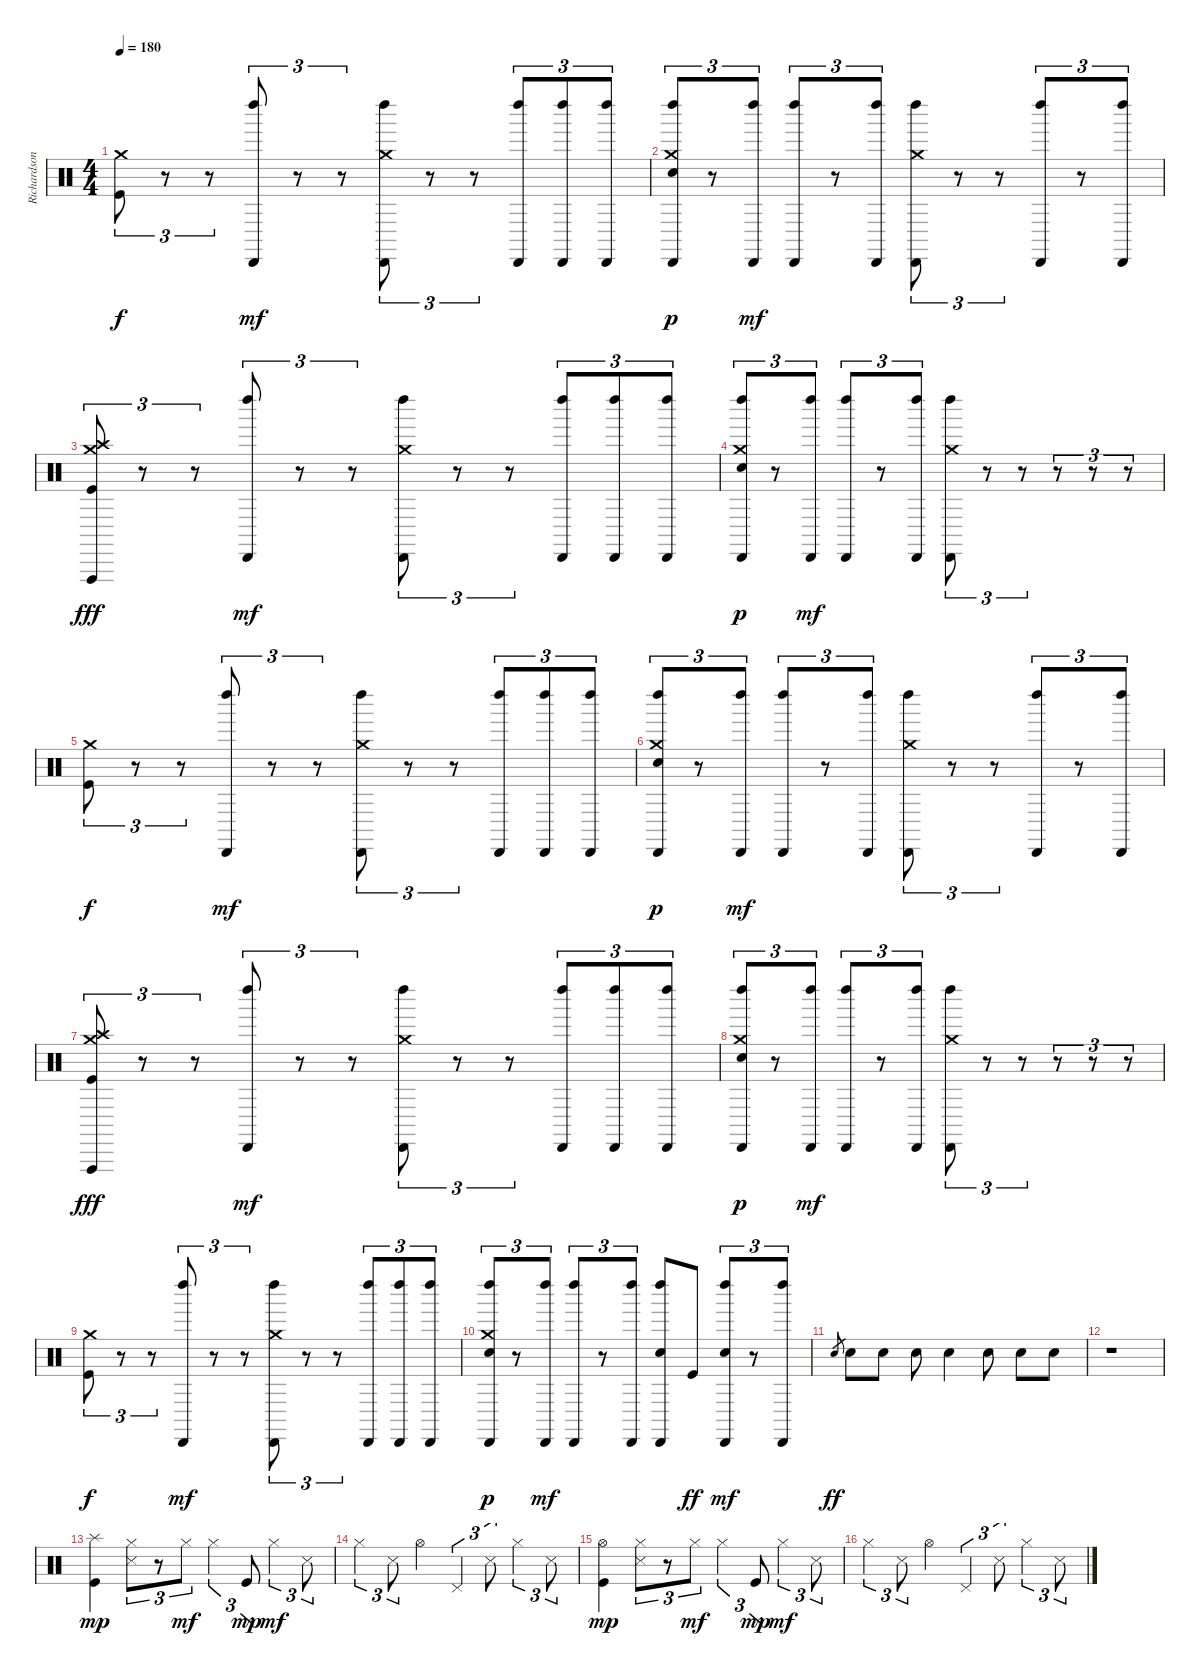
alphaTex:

\track ("Richardson" "Richardson") {instrument percussion}
\staff {score}
\articulation defaults
\ts (4 4)
\tempo 180
\clef neutral
\ks c
("Crash medium (hit)" "Kick (hit)").8{tu (3 2) dy f} r.8{tu (3 2)} r.8{tu (3 2)} ("Cabasa (hit)" "Left Maraca (hit)").8{tu (3 2) dy mf} r.8{tu (3 2)} r.8{tu (3 2)} ("Crash medium (hit)" "Cabasa (hit)" "Left Maraca (hit)").8{tu (3 2)} r.8{tu (3 2)} r.8{tu (3 2)} ("Cabasa (hit)" "Left Maraca (hit)").8{tu (3 2)} ("Cabasa (hit)" "Left Maraca (hit)").8{tu (3 2)} ("Cabasa (hit)" "Left Maraca (hit)").8{tu (3 2)} |
("Crash medium (hit)" "Left Maraca (hit)" "Electric Snare (hit)" "Cabasa (hit)").8{tu (3 2) dy p} r.8{tu (3 2)} ("Cabasa (hit)" "Left Maraca (hit)").8{tu (3 2) dy mf} ("Cabasa (hit)" "Left Maraca (hit)").8{tu (3 2)} r.8{tu (3 2)} ("Cabasa (hit)" "Left Maraca (hit)").8{tu (3 2)} ("Crash medium (hit)" "Cabasa (hit)" "Left Maraca (hit)").8{tu (3 2)} r.8{tu (3 2)} r.8{tu (3 2)} ("Cabasa (hit)" "Left Maraca (hit)").8{tu (3 2)} r.8{tu (3 2)} ("Cabasa (hit)" "Left Maraca (hit)").8{tu (3 2)} |
("Crash medium (hit)" "Crash high (hit)" "Vibraslap (hit)" "Kick (hit)").8{tu (3 2) dy fff} r.8{tu (3 2)} r.8{tu (3 2)} ("Cabasa (hit)" "Left Maraca (hit)").8{tu (3 2) dy mf} r.8{tu (3 2)} r.8{tu (3 2)} ("Crash medium (hit)" "Cabasa (hit)" "Left Maraca (hit)").8{tu (3 2)} r.8{tu (3 2)} r.8{tu (3 2)} ("Cabasa (hit)" "Left Maraca (hit)").8{tu (3 2)} ("Cabasa (hit)" "Left Maraca (hit)").8{tu (3 2)} ("Cabasa (hit)" "Left Maraca (hit)").8{tu (3 2)} |
("Crash medium (hit)" "Left Maraca (hit)" "Electric Snare (hit)" "Cabasa (hit)").8{tu (3 2) dy p} r.8{tu (3 2)} ("Cabasa (hit)" "Left Maraca (hit)").8{tu (3 2) dy mf} ("Cabasa (hit)" "Left Maraca (hit)").8{tu (3 2)} r.8{tu (3 2)} ("Cabasa (hit)" "Left Maraca (hit)").8{tu (3 2)} ("Crash medium (hit)" "Cabasa (hit)" "Left Maraca (hit)").8{tu (3 2)} r.8{tu (3 2)} r.8{tu (3 2)} r.8{tu (3 2)} r.8{tu (3 2)} r.8{tu (3 2)} |
("Crash medium (hit)" "Kick (hit)").8{tu (3 2) dy f} r.8{tu (3 2)} r.8{tu (3 2)} ("Cabasa (hit)" "Left Maraca (hit)").8{tu (3 2) dy mf} r.8{tu (3 2)} r.8{tu (3 2)} ("Crash medium (hit)" "Cabasa (hit)" "Left Maraca (hit)").8{tu (3 2)} r.8{tu (3 2)} r.8{tu (3 2)} ("Cabasa (hit)" "Left Maraca (hit)").8{tu (3 2)} ("Cabasa (hit)" "Left Maraca (hit)").8{tu (3 2)} ("Cabasa (hit)" "Left Maraca (hit)").8{tu (3 2)} |
("Crash medium (hit)" "Left Maraca (hit)" "Electric Snare (hit)" "Cabasa (hit)").8{tu (3 2) dy p} r.8{tu (3 2)} ("Cabasa (hit)" "Left Maraca (hit)").8{tu (3 2) dy mf} ("Cabasa (hit)" "Left Maraca (hit)").8{tu (3 2)} r.8{tu (3 2)} ("Cabasa (hit)" "Left Maraca (hit)").8{tu (3 2)} ("Crash medium (hit)" "Cabasa (hit)" "Left Maraca (hit)").8{tu (3 2)} r.8{tu (3 2)} r.8{tu (3 2)} ("Cabasa (hit)" "Left Maraca (hit)").8{tu (3 2)} r.8{tu (3 2)} ("Cabasa (hit)" "Left Maraca (hit)").8{tu (3 2)} |
("Crash medium (hit)" "Crash high (hit)" "Vibraslap (hit)" "Kick (hit)").8{tu (3 2) dy fff} r.8{tu (3 2)} r.8{tu (3 2)} ("Cabasa (hit)" "Left Maraca (hit)").8{tu (3 2) dy mf} r.8{tu (3 2)} r.8{tu (3 2)} ("Crash medium (hit)" "Cabasa (hit)" "Left Maraca (hit)").8{tu (3 2)} r.8{tu (3 2)} r.8{tu (3 2)} ("Cabasa (hit)" "Left Maraca (hit)").8{tu (3 2)} ("Cabasa (hit)" "Left Maraca (hit)").8{tu (3 2)} ("Cabasa (hit)" "Left Maraca (hit)").8{tu (3 2)} |
("Crash medium (hit)" "Left Maraca (hit)" "Electric Snare (hit)" "Cabasa (hit)").8{tu (3 2) dy p} r.8{tu (3 2)} ("Cabasa (hit)" "Left Maraca (hit)").8{tu (3 2) dy mf} ("Cabasa (hit)" "Left Maraca (hit)").8{tu (3 2)} r.8{tu (3 2)} ("Cabasa (hit)" "Left Maraca (hit)").8{tu (3 2)} ("Crash medium (hit)" "Cabasa (hit)" "Left Maraca (hit)").8{tu (3 2)} r.8{tu (3 2)} r.8{tu (3 2)} r.8{tu (3 2)} r.8{tu (3 2)} r.8{tu (3 2)} |
("Crash medium (hit)" "Kick (hit)").8{tu (3 2) dy f} r.8{tu (3 2)} r.8{tu (3 2)} ("Cabasa (hit)" "Left Maraca (hit)").8{tu (3 2) dy mf} r.8{tu (3 2)} r.8{tu (3 2)} ("Crash medium (hit)" "Cabasa (hit)" "Left Maraca (hit)").8{tu (3 2)} r.8{tu (3 2)} r.8{tu (3 2)} ("Cabasa (hit)" "Left Maraca (hit)").8{tu (3 2)} ("Cabasa (hit)" "Left Maraca (hit)").8{tu (3 2)} ("Cabasa (hit)" "Left Maraca (hit)").8{tu (3 2)} |
("Crash medium (hit)" "Left Maraca (hit)" "Electric Snare (hit)" "Cabasa (hit)").8{tu (3 2) dy p} r.8{tu (3 2)} ("Cabasa (hit)" "Left Maraca (hit)").8{tu (3 2) dy mf} ("Cabasa (hit)" "Left Maraca (hit)").8{tu (3 2)} r.8{tu (3 2)} ("Cabasa (hit)" "Left Maraca (hit)").8{tu (3 2)} ("Electric Snare (hit)" "Cabasa (hit)" "Left Maraca (hit)").8 "Kick (hit)".8{dy ff} ("Electric Snare (hit)" "Cabasa (hit)" "Left Maraca (hit)").8{tu (3 2) dy mf} r.8{tu (3 2)} ("Cabasa (hit)" "Left Maraca (hit)").8{tu (3 2)} |
"Electric Snare (hit)".8{gr dy ff} "Electric Snare (hit)".8 "Electric Snare (hit)".8 "Electric Snare (hit)".8 "Electric Snare (hit)".4 "Electric Snare (hit)".8 "Electric Snare (hit)".8 "Electric Snare (hit)".8 |
r.1 |
("Splash (hit)" "Kick (hit)").4{dy mp} ("Hi-Hat (closed)" "Snare (side stick) 3").8{tu (3 2)} r.8{tu (3 2)} "Hi-Hat (closed)".8{tu (3 2) dy mf} "Hi-Hat (closed)".4{tu (3 2)} "Kick (hit)".8{tu (3 2) dy mp} "Hi-Hat (closed)".4{tu (3 2) dy mf} "Snare (side stick) 3".8{tu (3 2)} |
"Hi-Hat (closed)".4{tu (3 2)} "Snare (side stick) 3".8{tu (3 2)} "Hi-Hat (open)".4 "Pedal Hi-Hat (hit)".4{tu (3 2)} "Snare (side stick) 3".8{tu (3 2)} "Hi-Hat (closed)".4{tu (3 2)} "Snare (side stick) 3".8{tu (3 2)} |
("Hi-Hat (open)" "Kick (hit)").4{dy mp} ("Hi-Hat (closed)" "Snare (side stick) 3").8{tu (3 2)} r.8{tu (3 2)} "Hi-Hat (closed)".8{tu (3 2) dy mf} "Hi-Hat (closed)".4{tu (3 2)} "Kick (hit)".8{tu (3 2) dy mp} "Hi-Hat (closed)".4{tu (3 2) dy mf} "Snare (side stick) 3".8{tu (3 2)} |
"Hi-Hat (closed)".4{tu (3 2)} "Snare (side stick) 3".8{tu (3 2)} "Hi-Hat (open)".4 "Pedal Hi-Hat (hit)".4{tu (3 2)} "Snare (side stick) 3".8{tu (3 2)} "Hi-Hat (closed)".4{tu (3 2)} "Snare (side stick) 3".8{tu (3 2)}
